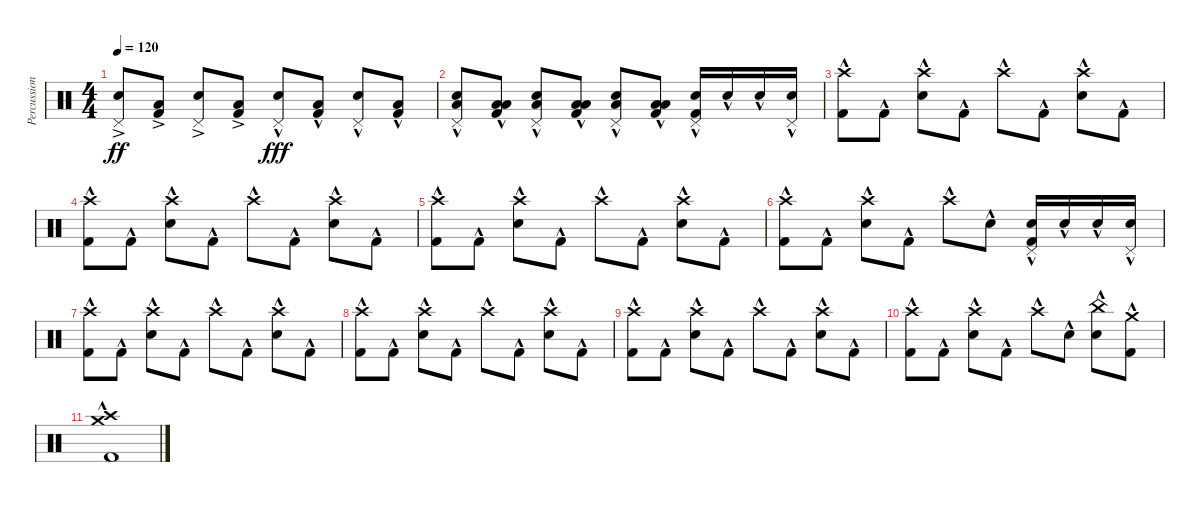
\track ("Percussion" "Percussion") {instrument percussion}
\staff {score}
\articulation defaults
\ts (4 4)
\tempo 120
\clef neutral
\ks c
("Pedal Hi-Hat (hit)"{ac} "Electric Snare (hit)"{ac}).8{dy ff} ("Low Floor Tom (hit)"{ac} "Kick (hit) 2").8 ("Pedal Hi-Hat (hit)"{ac} "Electric Snare (hit)"{ac}).8 ("Low Floor Tom (hit)"{ac} "Kick (hit) 2").8 ("Pedal Hi-Hat (hit)" "Electric Snare (hit)"{hac}).8{dy fff} ("Low Floor Tom (hit)"{hac} "Kick (hit) 2").8 ("Pedal Hi-Hat (hit)" "Electric Snare (hit)"{hac}).8 ("Low Floor Tom (hit)"{hac} "Kick (hit) 2").8 |
("Pedal Hi-Hat (hit)"{hac} "Electric Snare (hit)"{hac} "Low Floor Tom (hit)"{hac}).8 ("Low Tom (hit)"{hac} "Low Floor Tom (hit)"{hac} "Kick (hit) 2").8 ("Pedal Hi-Hat (hit)"{hac} "Electric Snare (hit)"{hac} "Low Floor Tom (hit)"{hac}).8 ("Low Floor Tom (hit)"{hac} "Low Floor Tom (hit)"{hac} "Kick (hit) 2").8 ("Pedal Hi-Hat (hit)" "Electric Snare (hit)"{hac} "Low Floor Tom (hit)"{hac}).8 ("Low Tom (hit)"{hac} "Low Floor Tom (hit)"{hac} "Kick (hit) 2").8 ("Pedal Hi-Hat (hit)" "Kick (hit) 2"{hac} "Electric Snare (hit)"{hac}).16 "Electric Snare (hit)"{hac}.16 "Electric Snare (hit)"{hac}.16 ("Pedal Hi-Hat (hit)" "Electric Snare (hit)"{hac}).16 |
("Crash high (hit)"{hac} "Kick (hit) 2"{hac}).8 "Kick (hit) 2"{hac}.8 ("Crash high (hit)"{hac} "Electric Snare (hit)"{hac}).8 "Kick (hit) 2"{hac}.8 "Crash high (hit)"{hac}.8 "Kick (hit) 2"{hac}.8 ("Crash high (hit)"{hac} "Electric Snare (hit)"{hac}).8 "Kick (hit) 2"{hac}.8 |
("Crash high (hit)"{hac} "Kick (hit) 2"{hac}).8 "Kick (hit) 2"{hac}.8 ("Crash high (hit)"{hac} "Electric Snare (hit)"{hac}).8 "Kick (hit) 2"{hac}.8 "Crash high (hit)"{hac}.8 "Kick (hit) 2"{hac}.8 ("Crash high (hit)"{hac} "Electric Snare (hit)"{hac}).8 "Kick (hit) 2"{hac}.8 |
("Crash high (hit)"{hac} "Kick (hit) 2"{hac}).8 "Kick (hit) 2"{hac}.8 ("Crash high (hit)"{hac} "Electric Snare (hit)"{hac}).8 "Kick (hit) 2"{hac}.8 "Crash high (hit)"{hac}.8 "Kick (hit) 2"{hac}.8 ("Crash high (hit)"{hac} "Electric Snare (hit)"{hac}).8 "Kick (hit) 2"{hac}.8 |
("Crash high (hit)"{hac} "Kick (hit) 2"{hac}).8 "Kick (hit) 2"{hac}.8 ("Crash high (hit)"{hac} "Electric Snare (hit)"{hac}).8 "Kick (hit) 2"{hac}.8 "Crash high (hit)"{hac}.8 "Electric Snare (hit)"{hac}.8 ("Pedal Hi-Hat (hit)" "Kick (hit) 2"{hac} "Electric Snare (hit)"{hac}).16 "Electric Snare (hit)"{hac}.16 "Electric Snare (hit)"{hac}.16 ("Pedal Hi-Hat (hit)" "Electric Snare (hit)"{hac}).16 |
("Crash high (hit)"{hac} "Kick (hit) 2"{hac}).8 "Kick (hit) 2"{hac}.8 ("Crash high (hit)"{hac} "Electric Snare (hit)"{hac}).8 "Kick (hit) 2"{hac}.8 "Crash high (hit)"{hac}.8 "Kick (hit) 2"{hac}.8 ("Crash high (hit)"{hac} "Electric Snare (hit)"{hac}).8 "Kick (hit) 2"{hac}.8 |
("Crash high (hit)"{hac} "Kick (hit) 2"{hac}).8 "Kick (hit) 2"{hac}.8 ("Crash high (hit)"{hac} "Electric Snare (hit)"{hac}).8 "Kick (hit) 2"{hac}.8 "Crash high (hit)"{hac}.8 "Kick (hit) 2"{hac}.8 ("Crash high (hit)"{hac} "Electric Snare (hit)"{hac}).8 "Kick (hit) 2"{hac}.8 |
("Crash high (hit)"{hac} "Kick (hit) 2"{hac}).8 "Kick (hit) 2"{hac}.8 ("Crash high (hit)"{hac} "Electric Snare (hit)"{hac}).8 "Kick (hit) 2"{hac}.8 "Crash high (hit)"{hac}.8 "Kick (hit) 2"{hac}.8 ("Crash high (hit)"{hac} "Electric Snare (hit)"{hac}).8 "Kick (hit) 2"{hac}.8 |
("Crash high (hit)"{hac} "Kick (hit) 2"{hac}).8 "Kick (hit) 2"{hac}.8 ("Crash high (hit)"{hac} "Electric Snare (hit)"{hac}).8 "Kick (hit) 2"{hac}.8 "Crash high (hit)"{hac}.8 "Electric Snare (hit)"{hac}.8 ("China (hit)"{hac} "Electric Snare (hit)"{hac}).8 ("Crash medium (hit)"{hac} "Kick (hit) 2"{hac}).8 |
("Crash medium (hit)"{hac} "Crash high (hit)"{hac} "Kick (hit) 2"{hac}).1
